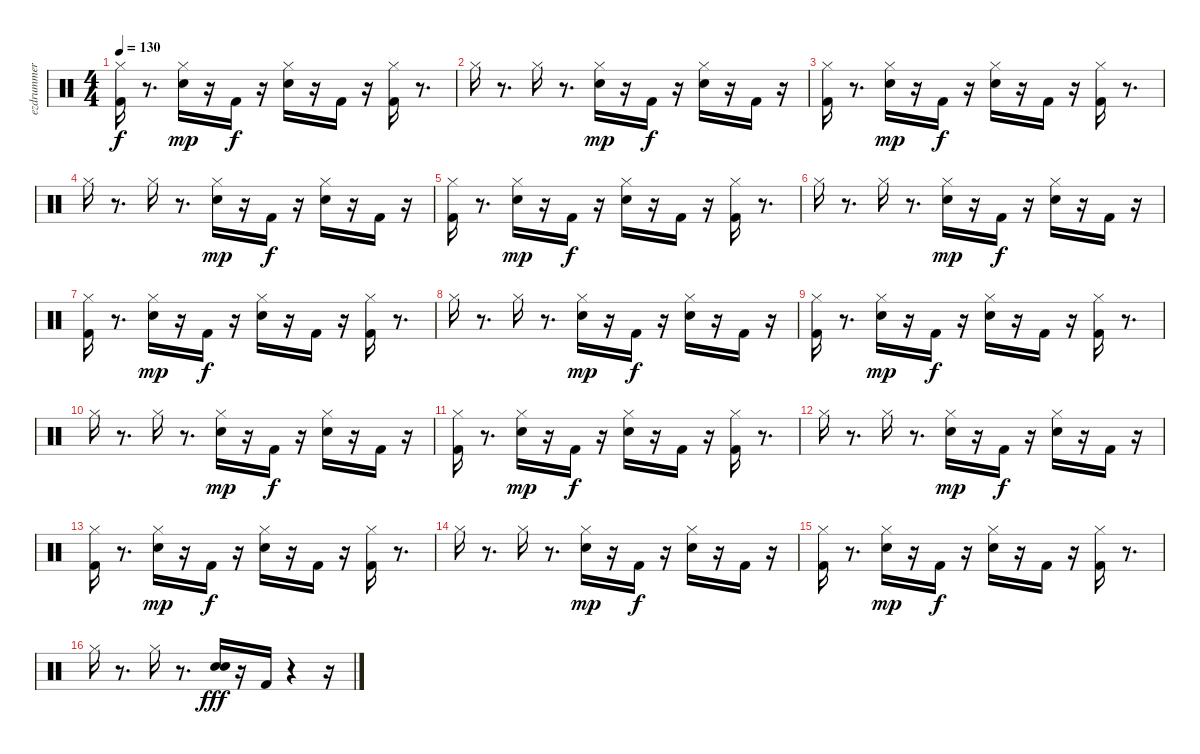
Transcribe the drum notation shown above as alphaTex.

\track ("ezdrummer 01" "ezdrummer ") {instrument percussion}
\staff {score}
\articulation defaults
\ts (4 4)
\tempo 130
\clef neutral
\ks c
("Kick (hit) 2" "Hi-Hat (closed)").16{dy f} r.8{d} ("Snare (hit) 2" "Hi-Hat (closed)").16{dy mp} r.16 "Kick (hit) 2".16{dy f} r.16 ("Snare (hit) 2" "Hi-Hat (closed)").16 r.16 "Kick (hit) 2".16 r.16 ("Kick (hit) 2" "Hi-Hat (closed)").16 r.8{d} |
"Hi-Hat (closed)".16 r.8{d} "Hi-Hat (closed)".16 r.8{d} ("Snare (hit) 2" "Hi-Hat (closed)").16{dy mp} r.16 "Kick (hit) 2".16{dy f} r.16 ("Snare (hit) 2" "Hi-Hat (closed)").16 r.16 "Kick (hit) 2".16 r.16 |
("Kick (hit) 2" "Hi-Hat (closed)").16 r.8{d} ("Snare (hit) 2" "Hi-Hat (closed)").16{dy mp} r.16 "Kick (hit) 2".16{dy f} r.16 ("Snare (hit) 2" "Hi-Hat (closed)").16 r.16 "Kick (hit) 2".16 r.16 ("Kick (hit) 2" "Hi-Hat (closed)").16 r.8{d} |
"Hi-Hat (closed)".16 r.8{d} "Hi-Hat (closed)".16 r.8{d} ("Snare (hit) 2" "Hi-Hat (closed)").16{dy mp} r.16 "Kick (hit) 2".16{dy f} r.16 ("Snare (hit) 2" "Hi-Hat (closed)").16 r.16 "Kick (hit) 2".16 r.16 |
("Kick (hit) 2" "Hi-Hat (closed)").16 r.8{d} ("Snare (hit) 2" "Hi-Hat (closed)").16{dy mp} r.16 "Kick (hit) 2".16{dy f} r.16 ("Snare (hit) 2" "Hi-Hat (closed)").16 r.16 "Kick (hit) 2".16 r.16 ("Kick (hit) 2" "Hi-Hat (closed)").16 r.8{d} |
"Hi-Hat (closed)".16 r.8{d} "Hi-Hat (closed)".16 r.8{d} ("Snare (hit) 2" "Hi-Hat (closed)").16{dy mp} r.16 "Kick (hit) 2".16{dy f} r.16 ("Snare (hit) 2" "Hi-Hat (closed)").16 r.16 "Kick (hit) 2".16 r.16 |
("Kick (hit) 2" "Hi-Hat (closed)").16 r.8{d} ("Snare (hit) 2" "Hi-Hat (closed)").16{dy mp} r.16 "Kick (hit) 2".16{dy f} r.16 ("Snare (hit) 2" "Hi-Hat (closed)").16 r.16 "Kick (hit) 2".16 r.16 ("Kick (hit) 2" "Hi-Hat (closed)").16 r.8{d} |
"Hi-Hat (closed)".16 r.8{d} "Hi-Hat (closed)".16 r.8{d} ("Snare (hit) 2" "Hi-Hat (closed)").16{dy mp} r.16 "Kick (hit) 2".16{dy f} r.16 ("Snare (hit) 2" "Hi-Hat (closed)").16 r.16 "Kick (hit) 2".16 r.16 |
("Kick (hit) 2" "Hi-Hat (closed)").16 r.8{d} ("Snare (hit) 2" "Hi-Hat (closed)").16{dy mp} r.16 "Kick (hit) 2".16{dy f} r.16 ("Snare (hit) 2" "Hi-Hat (closed)").16 r.16 "Kick (hit) 2".16 r.16 ("Kick (hit) 2" "Hi-Hat (closed)").16 r.8{d} |
"Hi-Hat (closed)".16 r.8{d} "Hi-Hat (closed)".16 r.8{d} ("Snare (hit) 2" "Hi-Hat (closed)").16{dy mp} r.16 "Kick (hit) 2".16{dy f} r.16 ("Snare (hit) 2" "Hi-Hat (closed)").16 r.16 "Kick (hit) 2".16 r.16 |
("Kick (hit) 2" "Hi-Hat (closed)").16 r.8{d} ("Snare (hit) 2" "Hi-Hat (closed)").16{dy mp} r.16 "Kick (hit) 2".16{dy f} r.16 ("Snare (hit) 2" "Hi-Hat (closed)").16 r.16 "Kick (hit) 2".16 r.16 ("Kick (hit) 2" "Hi-Hat (closed)").16 r.8{d} |
"Hi-Hat (closed)".16 r.8{d} "Hi-Hat (closed)".16 r.8{d} ("Snare (hit) 2" "Hi-Hat (closed)").16{dy mp} r.16 "Kick (hit) 2".16{dy f} r.16 ("Snare (hit) 2" "Hi-Hat (closed)").16 r.16 "Kick (hit) 2".16 r.16 |
("Kick (hit) 2" "Hi-Hat (closed)").16 r.8{d} ("Snare (hit) 2" "Hi-Hat (closed)").16{dy mp} r.16 "Kick (hit) 2".16{dy f} r.16 ("Snare (hit) 2" "Hi-Hat (closed)").16 r.16 "Kick (hit) 2".16 r.16 ("Kick (hit) 2" "Hi-Hat (closed)").16 r.8{d} |
"Hi-Hat (closed)".16 r.8{d} "Hi-Hat (closed)".16 r.8{d} ("Snare (hit) 2" "Hi-Hat (closed)").16{dy mp} r.16 "Kick (hit) 2".16{dy f} r.16 ("Snare (hit) 2" "Hi-Hat (closed)").16 r.16 "Kick (hit) 2".16 r.16 |
("Kick (hit) 2" "Hi-Hat (closed)").16 r.8{d} ("Snare (hit) 2" "Hi-Hat (closed)").16{dy mp} r.16 "Kick (hit) 2".16{dy f} r.16 ("Snare (hit) 2" "Hi-Hat (closed)").16 r.16 "Kick (hit) 2".16 r.16 ("Kick (hit) 2" "Hi-Hat (closed)").16 r.8{d} |
"Hi-Hat (closed)".16 r.8{d} "Hi-Hat (closed)".16 r.8{d} ("Snare (hit) 2" "Snare (hit) 2").16{dy fff} r.16 "Kick (hit) 2".16 r.4 r.16
